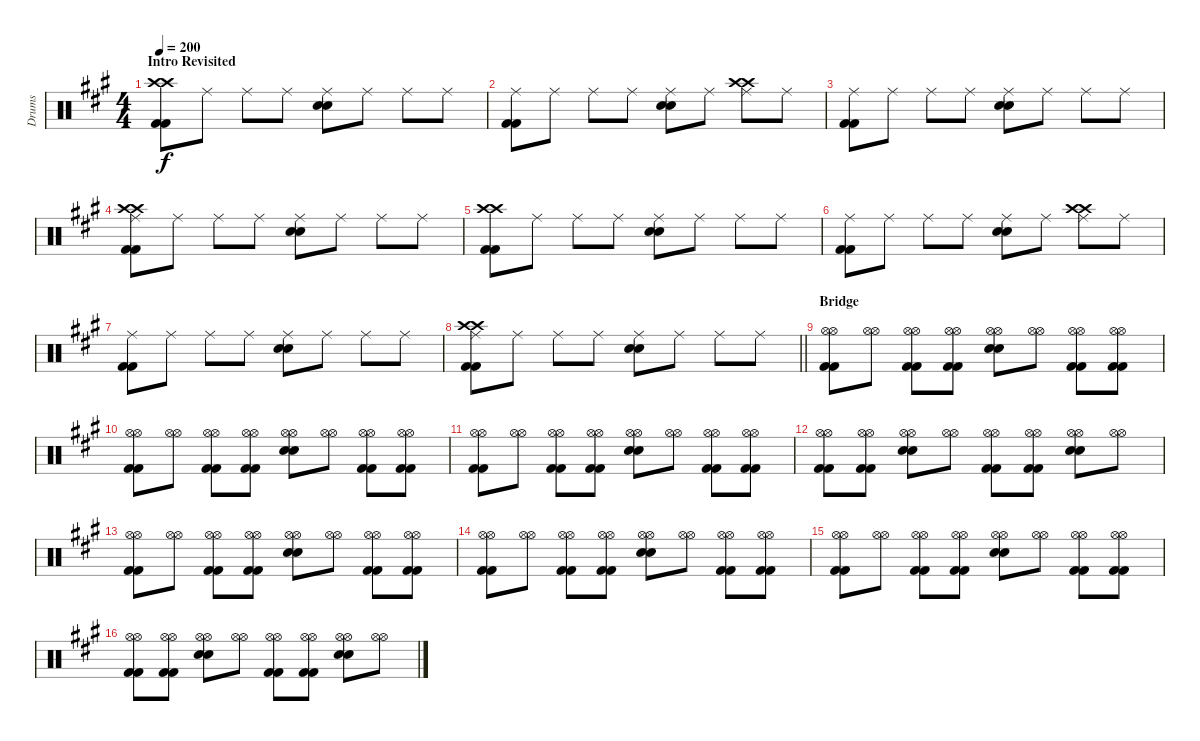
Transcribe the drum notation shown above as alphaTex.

\track ("Drums" "Drums") {instrument percussion}
\staff {score}
\articulation defaults
\ts (4 4)
\section ("" "Intro Revisited")
\tempo 200
\clef neutral
\ks f#minor
("Crash high (hit)" "Crash high (hit)" "Kick (hit) 2" "Kick (hit) 2").8{dy f} "Ride (middle)".8 "Ride (middle)".8 "Ride (middle)".8 ("Ride (middle)" "Snare (hit) 2" "Snare (hit) 2").8 "Ride (middle)".8 "Ride (middle)".8 "Ride (middle)".8 |
("Ride (middle)" "Kick (hit) 2" "Kick (hit) 2").8 "Ride (middle)".8 "Ride (middle)".8 "Ride (middle)".8 ("Ride (middle)" "Snare (hit) 2" "Snare (hit) 2").8 "Ride (middle)".8 ("Crash high (hit)" "Crash high (hit)" "Ride (middle)").8 "Ride (middle)".8 |
("Ride (middle)" "Kick (hit) 2" "Kick (hit) 2").8 "Ride (middle)".8 "Ride (middle)".8 "Ride (middle)".8 ("Ride (middle)" "Snare (hit) 2" "Snare (hit) 2").8 "Ride (middle)".8 "Ride (middle)".8 "Ride (middle)".8 |
("Crash high (hit)" "Crash high (hit)" "Ride (middle)" "Kick (hit) 2" "Kick (hit) 2").8 "Ride (middle)".8 "Ride (middle)".8 "Ride (middle)".8 ("Ride (middle)" "Snare (hit) 2" "Snare (hit) 2").8 "Ride (middle)".8 "Ride (middle)".8 "Ride (middle)".8 |
("Crash high (hit)" "Crash high (hit)" "Kick (hit) 2" "Kick (hit) 2").8 "Ride (middle)".8 "Ride (middle)".8 "Ride (middle)".8 ("Ride (middle)" "Snare (hit) 2" "Snare (hit) 2").8 "Ride (middle)".8 "Ride (middle)".8 "Ride (middle)".8 |
("Ride (middle)" "Kick (hit) 2" "Kick (hit) 2").8 "Ride (middle)".8 "Ride (middle)".8 "Ride (middle)".8 ("Ride (middle)" "Snare (hit) 2" "Snare (hit) 2").8 "Ride (middle)".8 ("Crash high (hit)" "Crash high (hit)" "Ride (middle)").8 "Ride (middle)".8 |
("Ride (middle)" "Kick (hit) 2" "Kick (hit) 2").8 "Ride (middle)".8 "Ride (middle)".8 "Ride (middle)".8 ("Ride (middle)" "Snare (hit) 2" "Snare (hit) 2").8 "Ride (middle)".8 "Ride (middle)".8 "Ride (middle)".8 |
\barLineRight lightlight
("Crash high (hit)" "Crash high (hit)" "Ride (middle)" "Kick (hit) 2" "Kick (hit) 2").8 "Ride (middle)".8 "Ride (middle)".8 "Ride (middle)".8 ("Ride (middle)" "Snare (hit) 2" "Snare (hit) 2").8 "Ride (middle)".8 "Ride (middle)".8 "Ride (middle)".8 |
\section ("" "Bridge")
("Hi-Hat (open)" "Hi-Hat (open)" "Kick (hit) 2" "Kick (hit) 2").8 ("Hi-Hat (open)" "Hi-Hat (open)").8 ("Hi-Hat (open)" "Hi-Hat (open)" "Kick (hit) 2" "Kick (hit) 2").8 ("Hi-Hat (open)" "Hi-Hat (open)" "Kick (hit) 2" "Kick (hit) 2").8 ("Hi-Hat (open)" "Hi-Hat (open)" "Snare (hit) 2" "Snare (hit) 2").8 ("Hi-Hat (open)" "Hi-Hat (open)").8 ("Hi-Hat (open)" "Hi-Hat (open)" "Kick (hit) 2" "Kick (hit) 2").8 ("Hi-Hat (open)" "Hi-Hat (open)" "Kick (hit) 2" "Kick (hit) 2").8 |
("Hi-Hat (open)" "Hi-Hat (open)" "Kick (hit) 2" "Kick (hit) 2").8 ("Hi-Hat (open)" "Hi-Hat (open)").8 ("Hi-Hat (open)" "Hi-Hat (open)" "Kick (hit) 2" "Kick (hit) 2").8 ("Hi-Hat (open)" "Hi-Hat (open)" "Kick (hit) 2" "Kick (hit) 2").8 ("Hi-Hat (open)" "Hi-Hat (open)" "Snare (hit) 2" "Snare (hit) 2").8 ("Hi-Hat (open)" "Hi-Hat (open)").8 ("Hi-Hat (open)" "Hi-Hat (open)" "Kick (hit) 2" "Kick (hit) 2").8 ("Hi-Hat (open)" "Hi-Hat (open)" "Kick (hit) 2" "Kick (hit) 2").8 |
("Hi-Hat (open)" "Hi-Hat (open)" "Kick (hit) 2" "Kick (hit) 2").8 ("Hi-Hat (open)" "Hi-Hat (open)").8 ("Hi-Hat (open)" "Hi-Hat (open)" "Kick (hit) 2" "Kick (hit) 2").8 ("Hi-Hat (open)" "Hi-Hat (open)" "Kick (hit) 2" "Kick (hit) 2").8 ("Hi-Hat (open)" "Hi-Hat (open)" "Snare (hit) 2" "Snare (hit) 2").8 ("Hi-Hat (open)" "Hi-Hat (open)").8 ("Hi-Hat (open)" "Hi-Hat (open)" "Kick (hit) 2" "Kick (hit) 2").8 ("Hi-Hat (open)" "Hi-Hat (open)" "Kick (hit) 2" "Kick (hit) 2").8 |
("Hi-Hat (open)" "Hi-Hat (open)" "Kick (hit) 2" "Kick (hit) 2").8 ("Hi-Hat (open)" "Hi-Hat (open)" "Kick (hit) 2" "Kick (hit) 2").8 ("Hi-Hat (open)" "Hi-Hat (open)" "Snare (hit) 2" "Snare (hit) 2").8 ("Hi-Hat (open)" "Hi-Hat (open)").8 ("Hi-Hat (open)" "Hi-Hat (open)" "Kick (hit) 2" "Kick (hit) 2").8 ("Hi-Hat (open)" "Hi-Hat (open)" "Kick (hit) 2" "Kick (hit) 2").8 ("Hi-Hat (open)" "Hi-Hat (open)" "Snare (hit) 2" "Snare (hit) 2").8 ("Hi-Hat (open)" "Hi-Hat (open)").8 |
("Hi-Hat (open)" "Hi-Hat (open)" "Kick (hit) 2" "Kick (hit) 2").8 ("Hi-Hat (open)" "Hi-Hat (open)").8 ("Hi-Hat (open)" "Hi-Hat (open)" "Kick (hit) 2" "Kick (hit) 2").8 ("Hi-Hat (open)" "Hi-Hat (open)" "Kick (hit) 2" "Kick (hit) 2").8 ("Hi-Hat (open)" "Hi-Hat (open)" "Snare (hit) 2" "Snare (hit) 2").8 ("Hi-Hat (open)" "Hi-Hat (open)").8 ("Hi-Hat (open)" "Hi-Hat (open)" "Kick (hit) 2" "Kick (hit) 2").8 ("Hi-Hat (open)" "Hi-Hat (open)" "Kick (hit) 2" "Kick (hit) 2").8 |
("Hi-Hat (open)" "Hi-Hat (open)" "Kick (hit) 2" "Kick (hit) 2").8 ("Hi-Hat (open)" "Hi-Hat (open)").8 ("Hi-Hat (open)" "Hi-Hat (open)" "Kick (hit) 2" "Kick (hit) 2").8 ("Hi-Hat (open)" "Hi-Hat (open)" "Kick (hit) 2" "Kick (hit) 2").8 ("Hi-Hat (open)" "Hi-Hat (open)" "Snare (hit) 2" "Snare (hit) 2").8 ("Hi-Hat (open)" "Hi-Hat (open)").8 ("Hi-Hat (open)" "Hi-Hat (open)" "Kick (hit) 2" "Kick (hit) 2").8 ("Hi-Hat (open)" "Hi-Hat (open)" "Kick (hit) 2" "Kick (hit) 2").8 |
("Hi-Hat (open)" "Hi-Hat (open)" "Kick (hit) 2" "Kick (hit) 2").8 ("Hi-Hat (open)" "Hi-Hat (open)").8 ("Hi-Hat (open)" "Hi-Hat (open)" "Kick (hit) 2" "Kick (hit) 2").8 ("Hi-Hat (open)" "Hi-Hat (open)" "Kick (hit) 2" "Kick (hit) 2").8 ("Hi-Hat (open)" "Hi-Hat (open)" "Snare (hit) 2" "Snare (hit) 2").8 ("Hi-Hat (open)" "Hi-Hat (open)").8 ("Hi-Hat (open)" "Hi-Hat (open)" "Kick (hit) 2" "Kick (hit) 2").8 ("Hi-Hat (open)" "Hi-Hat (open)" "Kick (hit) 2" "Kick (hit) 2").8 |
("Hi-Hat (open)" "Hi-Hat (open)" "Kick (hit) 2" "Kick (hit) 2").8 ("Hi-Hat (open)" "Hi-Hat (open)" "Kick (hit) 2" "Kick (hit) 2").8 ("Hi-Hat (open)" "Hi-Hat (open)" "Snare (hit) 2" "Snare (hit) 2").8 ("Hi-Hat (open)" "Hi-Hat (open)").8 ("Hi-Hat (open)" "Hi-Hat (open)" "Kick (hit) 2" "Kick (hit) 2").8 ("Hi-Hat (open)" "Hi-Hat (open)" "Kick (hit) 2" "Kick (hit) 2").8 ("Hi-Hat (open)" "Hi-Hat (open)" "Snare (hit) 2" "Snare (hit) 2").8 ("Hi-Hat (open)" "Hi-Hat (open)").8
